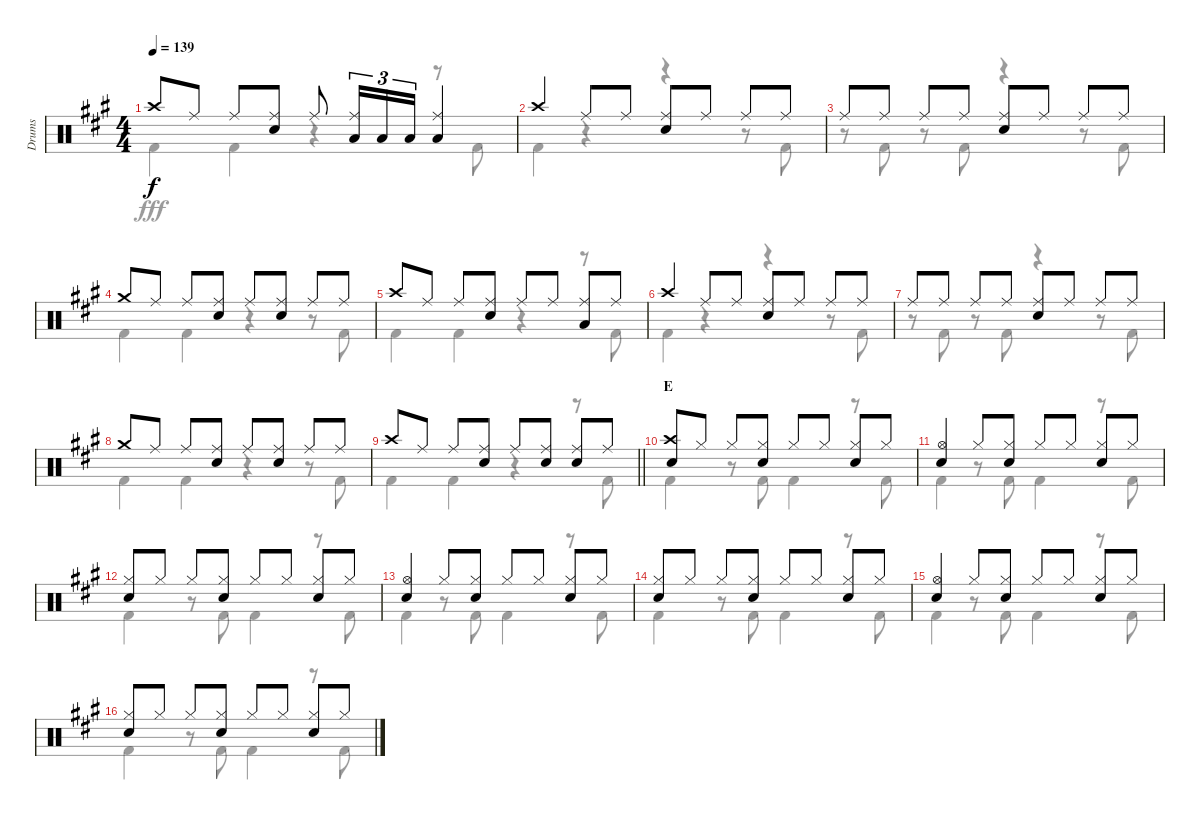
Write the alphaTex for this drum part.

\track ("Drums" "Drums") {instrument percussion}
\staff {score}
\articulation defaults
\voice
\ts (4 4)
\tempo 139
\clef neutral
\ks a "Crash high (hit)".8{dy f} "Ride (middle)".8 "Ride (middle)".8
("Ride (middle)" "Snare (hit) 2").8 "Ride (middle)".8 ("Ride (middle)" "Low Tom (hit)").16{tu (3 2)} "Low Tom (hit)".16{tu (3 2)} "Low Tom (hit)".16{tu (3 2)} ("Ride (middle)" "Low Tom (hit)").4 |
"Crash high (hit)".4 "Ride (middle)".8 "Ride (middle)".8 ("Ride (middle)" "Snare (hit) 2").8 "Ride (middle)".8 "Ride (middle)".8 "Ride (middle)".8 |
"Ride (middle)".8 "Ride (middle)".8 "Ride (middle)".8 "Ride (middle)".8 ("Ride (middle)" "Snare (hit) 2").8 "Ride (middle)".8 "Ride (middle)".8 "Ride (middle)".8 |
"Crash medium (hit)".8 "Ride (middle)".8 "Ride (middle)".8 ("Ride (middle)" "Snare (hit) 2").8 "Ride (middle)".8 ("Ride (middle)" "Snare (hit) 2").8 "Ride (middle)".8 "Ride (middle)".8 |
"Crash high (hit)".8 "Ride (middle)".8 "Ride (middle)".8 ("Ride (middle)" "Snare (hit) 2").8 "Ride (middle)".8 "Ride (middle)".8 ("Ride (middle)" "Low Tom (hit)").8 "Ride (middle)".8 |
"Crash high (hit)".4 "Ride (middle)".8 "Ride (middle)".8 ("Ride (middle)" "Snare (hit) 2").8 "Ride (middle)".8 "Ride (middle)".8 "Ride (middle)".8 |
"Ride (middle)".8 "Ride (middle)".8 "Ride (middle)".8 "Ride (middle)".8 ("Ride (middle)" "Snare (hit) 2").8 "Ride (middle)".8 "Ride (middle)".8 "Ride (middle)".8 |
"Crash medium (hit)".8 "Ride (middle)".8 "Ride (middle)".8 ("Ride (middle)" "Snare (hit) 2").8 "Ride (middle)".8 ("Ride (middle)" "Snare (hit) 2").8 "Ride (middle)".8 "Ride (middle)".8 |
\barLineRight lightlight "Crash high (hit)".8 "Ride (middle)".8 "Ride (middle)".8
("Ride (middle)" "Snare (hit) 2").8 "Ride (middle)".8 ("Ride (middle)" "Snare (hit) 2").8 ("Ride (middle)" "Snare (hit) 2").8 "Ride (middle)".8 |
\section ("" "E")
("Crash high (hit)" "Snare (hit) 2").8 "Hi-Hat (closed)".8 "Hi-Hat (closed)".8 ("Hi-Hat (closed)" "Snare (hit) 2").8 "Hi-Hat (closed)".8 "Hi-Hat (closed)".8 ("Hi-Hat (closed)" "Snare (hit) 2").8 "Hi-Hat (closed)".8 |
("Hi-Hat (open)" "Snare (hit) 2").4 "Hi-Hat (closed)".8 ("Hi-Hat (closed)" "Snare (hit) 2").8 "Hi-Hat (closed)".8 "Hi-Hat (closed)".8 ("Hi-Hat (closed)" "Snare (hit) 2").8 "Hi-Hat (closed)".8 |
("Hi-Hat (closed)" "Snare (hit) 2").8 "Hi-Hat (closed)".8 "Hi-Hat (closed)".8 ("Hi-Hat (closed)" "Snare (hit) 2").8 "Hi-Hat (closed)".8 "Hi-Hat (closed)".8 ("Hi-Hat (closed)" "Snare (hit) 2").8 "Hi-Hat (closed)".8 |
("Hi-Hat (open)" "Snare (hit) 2").4 "Hi-Hat (closed)".8 ("Hi-Hat (closed)" "Snare (hit) 2").8 "Hi-Hat (closed)".8 "Hi-Hat (closed)".8 ("Hi-Hat (closed)" "Snare (hit) 2").8 "Hi-Hat (closed)".8 |
("Hi-Hat (closed)" "Snare (hit) 2").8 "Hi-Hat (closed)".8 "Hi-Hat (closed)".8 ("Hi-Hat (closed)" "Snare (hit) 2").8 "Hi-Hat (closed)".8 "Hi-Hat (closed)".8 ("Hi-Hat (closed)" "Snare (hit) 2").8 "Hi-Hat (closed)".8 |
("Hi-Hat (open)" "Snare (hit) 2").4 "Hi-Hat (closed)".8 ("Hi-Hat (closed)" "Snare (hit) 2").8 "Hi-Hat (closed)".8 "Hi-Hat (closed)".8 ("Hi-Hat (closed)" "Snare (hit) 2").8 "Hi-Hat (closed)".8 |
("Hi-Hat (closed)" "Snare (hit) 2").8 "Hi-Hat (closed)".8 "Hi-Hat (closed)".8 ("Hi-Hat (closed)" "Snare (hit) 2").8 "Hi-Hat (closed)".8 "Hi-Hat (closed)".8 ("Hi-Hat (closed)" "Snare (hit) 2").8 "Hi-Hat (closed)".8
\voice
\clef neutral
\ottava regular
\simile none
\ks a "Kick (hit) 2".4{dy fff} "Kick (hit) 2".4
r.4 r.8 "Kick (hit) 2".8 |
"Kick (hit) 2".4 r.4 r.4 r.8 "Kick (hit) 2".8 |
r.8 "Kick (hit) 2".8 r.8 "Kick (hit) 2".8 r.4 r.8 "Kick (hit) 2".8 |
"Kick (hit) 2".4 "Kick (hit) 2".4 r.4 r.8 "Kick (hit) 2".8 |
"Kick (hit) 2".4 "Kick (hit) 2".4 r.4 r.8 "Kick (hit) 2".8 |
"Kick (hit) 2".4 r.4 r.4 r.8 "Kick (hit) 2".8 |
r.8 "Kick (hit) 2".8 r.8 "Kick (hit) 2".8 r.4 r.8 "Kick (hit) 2".8 |
"Kick (hit) 2".4 "Kick (hit) 2".4 r.4 r.8 "Kick (hit) 2".8 |
\barLineRight lightlight "Kick (hit) 2".4 "Kick (hit) 2".4
r.4 r.8 "Kick (hit) 2".8 |
"Kick (hit) 2".4 r.8 "Kick (hit) 2".8 "Kick (hit) 2".4 r.8 "Kick (hit) 2".8 |
"Kick (hit) 2".4 r.8 "Kick (hit) 2".8 "Kick (hit) 2".4 r.8 "Kick (hit) 2".8 |
"Kick (hit) 2".4 r.8 "Kick (hit) 2".8 "Kick (hit) 2".4 r.8 "Kick (hit) 2".8 |
"Kick (hit) 2".4 r.8 "Kick (hit) 2".8 "Kick (hit) 2".4 r.8 "Kick (hit) 2".8 |
"Kick (hit) 2".4 r.8 "Kick (hit) 2".8 "Kick (hit) 2".4 r.8 "Kick (hit) 2".8 |
"Kick (hit) 2".4 r.8 "Kick (hit) 2".8 "Kick (hit) 2".4 r.8 "Kick (hit) 2".8 |
"Kick (hit) 2".4 r.8 "Kick (hit) 2".8 "Kick (hit) 2".4 r.8 "Kick (hit) 2".8
